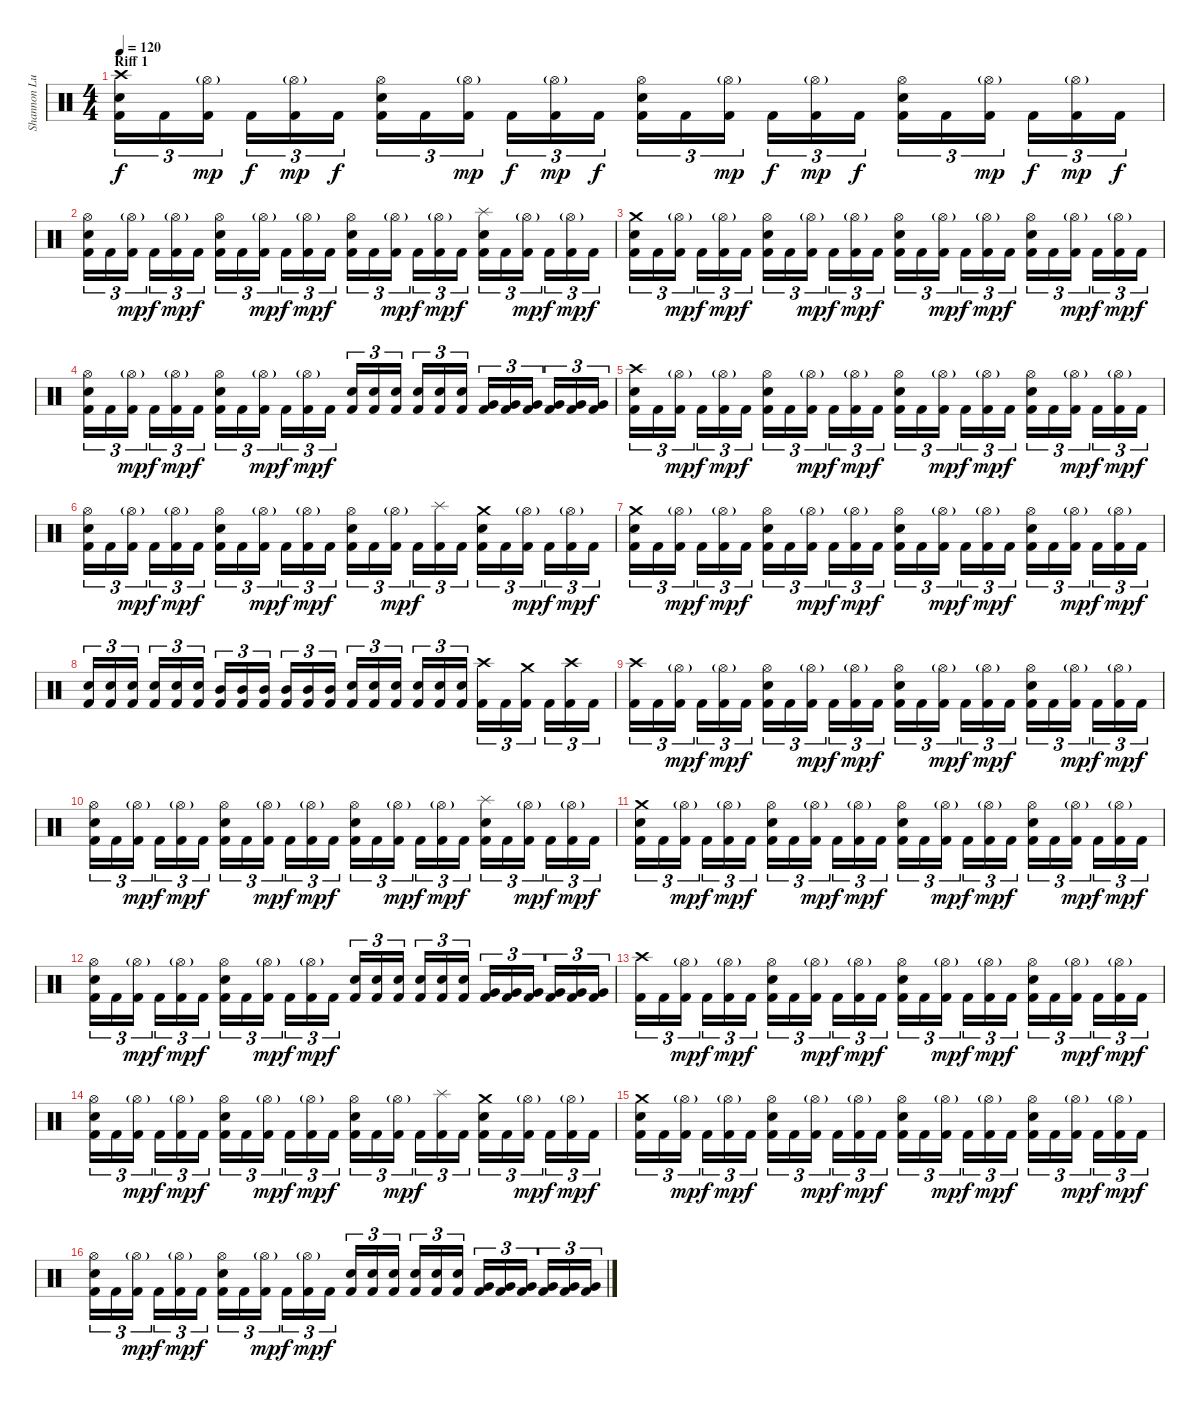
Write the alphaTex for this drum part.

\track ("Shannon Lucas (Drums)" "Shannon Lu") {instrument percussion}
\staff {score}
\articulation defaults
\ts (4 4)
\section ("" "Riff 1")
\tempo 120
\clef neutral
\ks c
("Crash high (hit)" "Snare (hit) 2" "Kick (hit) 2").16{tu (3 2) dy f} "Kick (hit) 2".16{tu (3 2)} ("Hi-Hat (open)"{g} "Kick (hit) 2").16{tu (3 2) dy mp} "Kick (hit) 2".16{tu (3 2) dy f} ("Hi-Hat (open)"{g} "Kick (hit) 2").16{tu (3 2) dy mp} "Kick (hit) 2".16{tu (3 2) dy f} ("Snare (hit) 2" "Hi-Hat (open)" "Kick (hit) 2").16{tu (3 2)} "Kick (hit) 2".16{tu (3 2)} ("Hi-Hat (open)"{g} "Kick (hit) 2").16{tu (3 2) dy mp} "Kick (hit) 2".16{tu (3 2) dy f} ("Hi-Hat (open)"{g} "Kick (hit) 2").16{tu (3 2) dy mp} "Kick (hit) 2".16{tu (3 2) dy f} ("Snare (hit) 2" "Hi-Hat (open)" "Kick (hit) 2").16{tu (3 2)} "Kick (hit) 2".16{tu (3 2)} ("Hi-Hat (open)"{g} "Kick (hit) 2").16{tu (3 2) dy mp} "Kick (hit) 2".16{tu (3 2) dy f} ("Hi-Hat (open)"{g} "Kick (hit) 2").16{tu (3 2) dy mp} "Kick (hit) 2".16{tu (3 2) dy f} ("Snare (hit) 2" "Hi-Hat (open)" "Kick (hit) 2").16{tu (3 2)} "Kick (hit) 2".16{tu (3 2)} ("Hi-Hat (open)"{g} "Kick (hit) 2").16{tu (3 2) dy mp} "Kick (hit) 2".16{tu (3 2) dy f} ("Hi-Hat (open)"{g} "Kick (hit) 2").16{tu (3 2) dy mp} "Kick (hit) 2".16{tu (3 2) dy f} |
("Hi-Hat (open)" "Snare (hit) 2" "Kick (hit) 2").16{tu (3 2)} "Kick (hit) 2".16{tu (3 2)} ("Hi-Hat (open)"{g} "Kick (hit) 2").16{tu (3 2) dy mp} "Kick (hit) 2".16{tu (3 2) dy f} ("Hi-Hat (open)"{g} "Kick (hit) 2").16{tu (3 2) dy mp} "Kick (hit) 2".16{tu (3 2) dy f} ("Snare (hit) 2" "Hi-Hat (open)" "Kick (hit) 2").16{tu (3 2)} "Kick (hit) 2".16{tu (3 2)} ("Hi-Hat (open)"{g} "Kick (hit) 2").16{tu (3 2) dy mp} "Kick (hit) 2".16{tu (3 2) dy f} ("Hi-Hat (open)"{g} "Kick (hit) 2").16{tu (3 2) dy mp} "Kick (hit) 2".16{tu (3 2) dy f} ("Snare (hit) 2" "Hi-Hat (open)" "Kick (hit) 2").16{tu (3 2)} "Kick (hit) 2".16{tu (3 2)} ("Hi-Hat (open)"{g} "Kick (hit) 2").16{tu (3 2) dy mp} "Kick (hit) 2".16{tu (3 2) dy f} ("Hi-Hat (open)"{g} "Kick (hit) 2").16{tu (3 2) dy mp} "Kick (hit) 2".16{tu (3 2) dy f} ("Snare (hit) 2" "Splash (hit)" "Kick (hit) 2").16{tu (3 2)} "Kick (hit) 2".16{tu (3 2)} ("Hi-Hat (open)"{g} "Kick (hit) 2").16{tu (3 2) dy mp} "Kick (hit) 2".16{tu (3 2) dy f} ("Hi-Hat (open)"{g} "Kick (hit) 2").16{tu (3 2) dy mp} "Kick (hit) 2".16{tu (3 2) dy f} |
("Crash medium (hit)" "Snare (hit) 2" "Kick (hit) 2").16{tu (3 2)} "Kick (hit) 2".16{tu (3 2)} ("Hi-Hat (open)"{g} "Kick (hit) 2").16{tu (3 2) dy mp} "Kick (hit) 2".16{tu (3 2) dy f} ("Hi-Hat (open)"{g} "Kick (hit) 2").16{tu (3 2) dy mp} "Kick (hit) 2".16{tu (3 2) dy f} ("Snare (hit) 2" "Hi-Hat (open)" "Kick (hit) 2").16{tu (3 2)} "Kick (hit) 2".16{tu (3 2)} ("Hi-Hat (open)"{g} "Kick (hit) 2").16{tu (3 2) dy mp} "Kick (hit) 2".16{tu (3 2) dy f} ("Hi-Hat (open)"{g} "Kick (hit) 2").16{tu (3 2) dy mp} "Kick (hit) 2".16{tu (3 2) dy f} ("Snare (hit) 2" "Hi-Hat (open)" "Kick (hit) 2").16{tu (3 2)} "Kick (hit) 2".16{tu (3 2)} ("Hi-Hat (open)"{g} "Kick (hit) 2").16{tu (3 2) dy mp} "Kick (hit) 2".16{tu (3 2) dy f} ("Hi-Hat (open)"{g} "Kick (hit) 2").16{tu (3 2) dy mp} "Kick (hit) 2".16{tu (3 2) dy f} ("Snare (hit) 2" "Hi-Hat (open)" "Kick (hit) 2").16{tu (3 2)} "Kick (hit) 2".16{tu (3 2)} ("Hi-Hat (open)"{g} "Kick (hit) 2").16{tu (3 2) dy mp} "Kick (hit) 2".16{tu (3 2) dy f} ("Hi-Hat (open)"{g} "Kick (hit) 2").16{tu (3 2) dy mp} "Kick (hit) 2".16{tu (3 2) dy f} |
("Hi-Hat (open)" "Snare (hit) 2" "Kick (hit) 2").16{tu (3 2)} "Kick (hit) 2".16{tu (3 2)} ("Hi-Hat (open)"{g} "Kick (hit) 2").16{tu (3 2) dy mp} "Kick (hit) 2".16{tu (3 2) dy f} ("Hi-Hat (open)"{g} "Kick (hit) 2").16{tu (3 2) dy mp} "Kick (hit) 2".16{tu (3 2) dy f} ("Snare (hit) 2" "Hi-Hat (open)" "Kick (hit) 2").16{tu (3 2)} "Kick (hit) 2".16{tu (3 2)} ("Hi-Hat (open)"{g} "Kick (hit) 2").16{tu (3 2) dy mp} "Kick (hit) 2".16{tu (3 2) dy f} ("Hi-Hat (open)"{g} "Kick (hit) 2").16{tu (3 2) dy mp} "Kick (hit) 2".16{tu (3 2) dy f} ("Snare (hit) 2" "Kick (hit) 2").16{tu (3 2)} ("Snare (hit) 2" "Kick (hit) 2").16{tu (3 2)} ("Snare (hit) 2" "Kick (hit) 2").16{tu (3 2)} ("Snare (hit) 2" "Kick (hit) 2").16{tu (3 2)} ("Snare (hit) 2" "Kick (hit) 2").16{tu (3 2)} ("Snare (hit) 2" "Kick (hit) 2").16{tu (3 2)} ("Very Low Tom (hit)" "Kick (hit) 2").16{tu (3 2)} ("Very Low Tom (hit)" "Kick (hit) 2").16{tu (3 2)} ("Very Low Tom (hit)" "Kick (hit) 2").16{tu (3 2)} ("Very Low Tom (hit)" "Kick (hit) 2").16{tu (3 2)} ("Very Low Tom (hit)" "Kick (hit) 2").16{tu (3 2)} ("Very Low Tom (hit)" "Kick (hit) 2").16{tu (3 2)} |
("Crash high (hit)" "Snare (hit) 2" "Kick (hit) 2").16{tu (3 2)} "Kick (hit) 2".16{tu (3 2)} ("Hi-Hat (open)"{g} "Kick (hit) 2").16{tu (3 2) dy mp} "Kick (hit) 2".16{tu (3 2) dy f} ("Hi-Hat (open)"{g} "Kick (hit) 2").16{tu (3 2) dy mp} "Kick (hit) 2".16{tu (3 2) dy f} ("Snare (hit) 2" "Hi-Hat (open)" "Kick (hit) 2").16{tu (3 2)} "Kick (hit) 2".16{tu (3 2)} ("Hi-Hat (open)"{g} "Kick (hit) 2").16{tu (3 2) dy mp} "Kick (hit) 2".16{tu (3 2) dy f} ("Hi-Hat (open)"{g} "Kick (hit) 2").16{tu (3 2) dy mp} "Kick (hit) 2".16{tu (3 2) dy f} ("Snare (hit) 2" "Hi-Hat (open)" "Kick (hit) 2").16{tu (3 2)} "Kick (hit) 2".16{tu (3 2)} ("Hi-Hat (open)"{g} "Kick (hit) 2").16{tu (3 2) dy mp} "Kick (hit) 2".16{tu (3 2) dy f} ("Hi-Hat (open)"{g} "Kick (hit) 2").16{tu (3 2) dy mp} "Kick (hit) 2".16{tu (3 2) dy f} ("Snare (hit) 2" "Hi-Hat (open)" "Kick (hit) 2").16{tu (3 2)} "Kick (hit) 2".16{tu (3 2)} ("Hi-Hat (open)"{g} "Kick (hit) 2").16{tu (3 2) dy mp} "Kick (hit) 2".16{tu (3 2) dy f} ("Hi-Hat (open)"{g} "Kick (hit) 2").16{tu (3 2) dy mp} "Kick (hit) 2".16{tu (3 2) dy f} |
("Hi-Hat (open)" "Snare (hit) 2" "Kick (hit) 2").16{tu (3 2)} "Kick (hit) 2".16{tu (3 2)} ("Hi-Hat (open)"{g} "Kick (hit) 2").16{tu (3 2) dy mp} "Kick (hit) 2".16{tu (3 2) dy f} ("Hi-Hat (open)"{g} "Kick (hit) 2").16{tu (3 2) dy mp} "Kick (hit) 2".16{tu (3 2) dy f} ("Snare (hit) 2" "Hi-Hat (open)" "Kick (hit) 2").16{tu (3 2)} "Kick (hit) 2".16{tu (3 2)} ("Hi-Hat (open)"{g} "Kick (hit) 2").16{tu (3 2) dy mp} "Kick (hit) 2".16{tu (3 2) dy f} ("Hi-Hat (open)"{g} "Kick (hit) 2").16{tu (3 2) dy mp} "Kick (hit) 2".16{tu (3 2) dy f} ("Snare (hit) 2" "Hi-Hat (open)" "Kick (hit) 2").16{tu (3 2)} "Kick (hit) 2".16{tu (3 2)} ("Hi-Hat (open)"{g} "Kick (hit) 2").16{tu (3 2) dy mp} "Kick (hit) 2".16{tu (3 2) dy f} ("Splash (hit)" "Kick (hit) 2").16{tu (3 2)} "Kick (hit) 2".16{tu (3 2)} ("Snare (hit) 2" "Crash medium (hit)" "Kick (hit) 2").16{tu (3 2)} "Kick (hit) 2".16{tu (3 2)} ("Hi-Hat (open)"{g} "Kick (hit) 2").16{tu (3 2) dy mp} "Kick (hit) 2".16{tu (3 2) dy f} ("Hi-Hat (open)"{g} "Kick (hit) 2").16{tu (3 2) dy mp} "Kick (hit) 2".16{tu (3 2) dy f} |
("Crash medium (hit)" "Snare (hit) 2" "Kick (hit) 2").16{tu (3 2)} "Kick (hit) 2".16{tu (3 2)} ("Hi-Hat (open)"{g} "Kick (hit) 2").16{tu (3 2) dy mp} "Kick (hit) 2".16{tu (3 2) dy f} ("Hi-Hat (open)"{g} "Kick (hit) 2").16{tu (3 2) dy mp} "Kick (hit) 2".16{tu (3 2) dy f} ("Snare (hit) 2" "Hi-Hat (open)" "Kick (hit) 2").16{tu (3 2)} "Kick (hit) 2".16{tu (3 2)} ("Hi-Hat (open)"{g} "Kick (hit) 2").16{tu (3 2) dy mp} "Kick (hit) 2".16{tu (3 2) dy f} ("Hi-Hat (open)"{g} "Kick (hit) 2").16{tu (3 2) dy mp} "Kick (hit) 2".16{tu (3 2) dy f} ("Snare (hit) 2" "Hi-Hat (open)" "Kick (hit) 2").16{tu (3 2)} "Kick (hit) 2".16{tu (3 2)} ("Hi-Hat (open)"{g} "Kick (hit) 2").16{tu (3 2) dy mp} "Kick (hit) 2".16{tu (3 2) dy f} ("Hi-Hat (open)"{g} "Kick (hit) 2").16{tu (3 2) dy mp} "Kick (hit) 2".16{tu (3 2) dy f} ("Snare (hit) 2" "Hi-Hat (open)" "Kick (hit) 2").16{tu (3 2)} "Kick (hit) 2".16{tu (3 2)} ("Hi-Hat (open)"{g} "Kick (hit) 2").16{tu (3 2) dy mp} "Kick (hit) 2".16{tu (3 2) dy f} ("Hi-Hat (open)"{g} "Kick (hit) 2").16{tu (3 2) dy mp} "Kick (hit) 2".16{tu (3 2) dy f} |
("Snare (hit) 2" "Kick (hit) 2").16{tu (3 2)} ("Snare (hit) 2" "Kick (hit) 2").16{tu (3 2)} ("Snare (hit) 2" "Kick (hit) 2").16{tu (3 2)} ("Snare (hit) 2" "Kick (hit) 2").16{tu (3 2)} ("Snare (hit) 2" "Kick (hit) 2").16{tu (3 2)} ("Snare (hit) 2" "Kick (hit) 2").16{tu (3 2)} ("Mid Tom (hit)" "Kick (hit) 2").16{tu (3 2)} ("Mid Tom (hit)" "Kick (hit) 2").16{tu (3 2)} ("Mid Tom (hit)" "Kick (hit) 2").16{tu (3 2)} ("Mid Tom (hit)" "Kick (hit) 2").16{tu (3 2)} ("Mid Tom (hit)" "Kick (hit) 2").16{tu (3 2)} ("Mid Tom (hit)" "Kick (hit) 2").16{tu (3 2)} ("Snare (hit) 2" "Kick (hit) 2").16{tu (3 2)} ("Snare (hit) 2" "Kick (hit) 2").16{tu (3 2)} ("Snare (hit) 2" "Kick (hit) 2").16{tu (3 2)} ("Snare (hit) 2" "Kick (hit) 2").16{tu (3 2)} ("Snare (hit) 2" "Kick (hit) 2").16{tu (3 2)} ("Snare (hit) 2" "Kick (hit) 2").16{tu (3 2)} ("Crash high (hit)" "Kick (hit) 2").16{tu (3 2)} "Kick (hit) 2".16{tu (3 2)} ("Crash medium (hit)" "Kick (hit) 2").16{tu (3 2)} "Kick (hit) 2".16{tu (3 2)} ("Crash high (hit)" "Kick (hit) 2").16{tu (3 2)} "Kick (hit) 2".16{tu (3 2)} |
("Crash high (hit)" "Kick (hit) 2").16{tu (3 2)} "Kick (hit) 2".16{tu (3 2)} ("Hi-Hat (open)"{g} "Kick (hit) 2").16{tu (3 2) dy mp} "Kick (hit) 2".16{tu (3 2) dy f} ("Hi-Hat (open)"{g} "Kick (hit) 2").16{tu (3 2) dy mp} "Kick (hit) 2".16{tu (3 2) dy f} ("Snare (hit) 2" "Hi-Hat (open)" "Kick (hit) 2").16{tu (3 2)} "Kick (hit) 2".16{tu (3 2)} ("Hi-Hat (open)"{g} "Kick (hit) 2").16{tu (3 2) dy mp} "Kick (hit) 2".16{tu (3 2) dy f} ("Hi-Hat (open)"{g} "Kick (hit) 2").16{tu (3 2) dy mp} "Kick (hit) 2".16{tu (3 2) dy f} ("Snare (hit) 2" "Hi-Hat (open)" "Kick (hit) 2").16{tu (3 2)} "Kick (hit) 2".16{tu (3 2)} ("Hi-Hat (open)"{g} "Kick (hit) 2").16{tu (3 2) dy mp} "Kick (hit) 2".16{tu (3 2) dy f} ("Hi-Hat (open)"{g} "Kick (hit) 2").16{tu (3 2) dy mp} "Kick (hit) 2".16{tu (3 2) dy f} ("Snare (hit) 2" "Hi-Hat (open)" "Kick (hit) 2").16{tu (3 2)} "Kick (hit) 2".16{tu (3 2)} ("Hi-Hat (open)"{g} "Kick (hit) 2").16{tu (3 2) dy mp} "Kick (hit) 2".16{tu (3 2) dy f} ("Hi-Hat (open)"{g} "Kick (hit) 2").16{tu (3 2) dy mp} "Kick (hit) 2".16{tu (3 2) dy f} |
("Hi-Hat (open)" "Snare (hit) 2" "Kick (hit) 2").16{tu (3 2)} "Kick (hit) 2".16{tu (3 2)} ("Hi-Hat (open)"{g} "Kick (hit) 2").16{tu (3 2) dy mp} "Kick (hit) 2".16{tu (3 2) dy f} ("Hi-Hat (open)"{g} "Kick (hit) 2").16{tu (3 2) dy mp} "Kick (hit) 2".16{tu (3 2) dy f} ("Snare (hit) 2" "Hi-Hat (open)" "Kick (hit) 2").16{tu (3 2)} "Kick (hit) 2".16{tu (3 2)} ("Hi-Hat (open)"{g} "Kick (hit) 2").16{tu (3 2) dy mp} "Kick (hit) 2".16{tu (3 2) dy f} ("Hi-Hat (open)"{g} "Kick (hit) 2").16{tu (3 2) dy mp} "Kick (hit) 2".16{tu (3 2) dy f} ("Snare (hit) 2" "Hi-Hat (open)" "Kick (hit) 2").16{tu (3 2)} "Kick (hit) 2".16{tu (3 2)} ("Hi-Hat (open)"{g} "Kick (hit) 2").16{tu (3 2) dy mp} "Kick (hit) 2".16{tu (3 2) dy f} ("Hi-Hat (open)"{g} "Kick (hit) 2").16{tu (3 2) dy mp} "Kick (hit) 2".16{tu (3 2) dy f} ("Snare (hit) 2" "Splash (hit)" "Kick (hit) 2").16{tu (3 2)} "Kick (hit) 2".16{tu (3 2)} ("Hi-Hat (open)"{g} "Kick (hit) 2").16{tu (3 2) dy mp} "Kick (hit) 2".16{tu (3 2) dy f} ("Hi-Hat (open)"{g} "Kick (hit) 2").16{tu (3 2) dy mp} "Kick (hit) 2".16{tu (3 2) dy f} |
("Crash medium (hit)" "Snare (hit) 2" "Kick (hit) 2").16{tu (3 2)} "Kick (hit) 2".16{tu (3 2)} ("Hi-Hat (open)"{g} "Kick (hit) 2").16{tu (3 2) dy mp} "Kick (hit) 2".16{tu (3 2) dy f} ("Hi-Hat (open)"{g} "Kick (hit) 2").16{tu (3 2) dy mp} "Kick (hit) 2".16{tu (3 2) dy f} ("Snare (hit) 2" "Hi-Hat (open)" "Kick (hit) 2").16{tu (3 2)} "Kick (hit) 2".16{tu (3 2)} ("Hi-Hat (open)"{g} "Kick (hit) 2").16{tu (3 2) dy mp} "Kick (hit) 2".16{tu (3 2) dy f} ("Hi-Hat (open)"{g} "Kick (hit) 2").16{tu (3 2) dy mp} "Kick (hit) 2".16{tu (3 2) dy f} ("Snare (hit) 2" "Hi-Hat (open)" "Kick (hit) 2").16{tu (3 2)} "Kick (hit) 2".16{tu (3 2)} ("Hi-Hat (open)"{g} "Kick (hit) 2").16{tu (3 2) dy mp} "Kick (hit) 2".16{tu (3 2) dy f} ("Hi-Hat (open)"{g} "Kick (hit) 2").16{tu (3 2) dy mp} "Kick (hit) 2".16{tu (3 2) dy f} ("Snare (hit) 2" "Hi-Hat (open)" "Kick (hit) 2").16{tu (3 2)} "Kick (hit) 2".16{tu (3 2)} ("Hi-Hat (open)"{g} "Kick (hit) 2").16{tu (3 2) dy mp} "Kick (hit) 2".16{tu (3 2) dy f} ("Hi-Hat (open)"{g} "Kick (hit) 2").16{tu (3 2) dy mp} "Kick (hit) 2".16{tu (3 2) dy f} |
("Hi-Hat (open)" "Snare (hit) 2" "Kick (hit) 2").16{tu (3 2)} "Kick (hit) 2".16{tu (3 2)} ("Hi-Hat (open)"{g} "Kick (hit) 2").16{tu (3 2) dy mp} "Kick (hit) 2".16{tu (3 2) dy f} ("Hi-Hat (open)"{g} "Kick (hit) 2").16{tu (3 2) dy mp} "Kick (hit) 2".16{tu (3 2) dy f} ("Snare (hit) 2" "Hi-Hat (open)" "Kick (hit) 2").16{tu (3 2)} "Kick (hit) 2".16{tu (3 2)} ("Hi-Hat (open)"{g} "Kick (hit) 2").16{tu (3 2) dy mp} "Kick (hit) 2".16{tu (3 2) dy f} ("Hi-Hat (open)"{g} "Kick (hit) 2").16{tu (3 2) dy mp} "Kick (hit) 2".16{tu (3 2) dy f} ("Snare (hit) 2" "Kick (hit) 2").16{tu (3 2)} ("Snare (hit) 2" "Kick (hit) 2").16{tu (3 2)} ("Snare (hit) 2" "Kick (hit) 2").16{tu (3 2)} ("Snare (hit) 2" "Kick (hit) 2").16{tu (3 2)} ("Snare (hit) 2" "Kick (hit) 2").16{tu (3 2)} ("Snare (hit) 2" "Kick (hit) 2").16{tu (3 2)} ("Very Low Tom (hit)" "Kick (hit) 2").16{tu (3 2)} ("Very Low Tom (hit)" "Kick (hit) 2").16{tu (3 2)} ("Very Low Tom (hit)" "Kick (hit) 2").16{tu (3 2)} ("Very Low Tom (hit)" "Kick (hit) 2").16{tu (3 2)} ("Very Low Tom (hit)" "Kick (hit) 2").16{tu (3 2)} ("Very Low Tom (hit)" "Kick (hit) 2").16{tu (3 2)} |
("Crash high (hit)" "Kick (hit) 2").16{tu (3 2)} "Kick (hit) 2".16{tu (3 2)} ("Hi-Hat (open)"{g} "Kick (hit) 2").16{tu (3 2) dy mp} "Kick (hit) 2".16{tu (3 2) dy f} ("Hi-Hat (open)"{g} "Kick (hit) 2").16{tu (3 2) dy mp} "Kick (hit) 2".16{tu (3 2) dy f} ("Snare (hit) 2" "Hi-Hat (open)" "Kick (hit) 2").16{tu (3 2)} "Kick (hit) 2".16{tu (3 2)} ("Hi-Hat (open)"{g} "Kick (hit) 2").16{tu (3 2) dy mp} "Kick (hit) 2".16{tu (3 2) dy f} ("Hi-Hat (open)"{g} "Kick (hit) 2").16{tu (3 2) dy mp} "Kick (hit) 2".16{tu (3 2) dy f} ("Snare (hit) 2" "Hi-Hat (open)" "Kick (hit) 2").16{tu (3 2)} "Kick (hit) 2".16{tu (3 2)} ("Hi-Hat (open)"{g} "Kick (hit) 2").16{tu (3 2) dy mp} "Kick (hit) 2".16{tu (3 2) dy f} ("Hi-Hat (open)"{g} "Kick (hit) 2").16{tu (3 2) dy mp} "Kick (hit) 2".16{tu (3 2) dy f} ("Snare (hit) 2" "Hi-Hat (open)" "Kick (hit) 2").16{tu (3 2)} "Kick (hit) 2".16{tu (3 2)} ("Hi-Hat (open)"{g} "Kick (hit) 2").16{tu (3 2) dy mp} "Kick (hit) 2".16{tu (3 2) dy f} ("Hi-Hat (open)"{g} "Kick (hit) 2").16{tu (3 2) dy mp} "Kick (hit) 2".16{tu (3 2) dy f} |
("Hi-Hat (open)" "Snare (hit) 2" "Kick (hit) 2").16{tu (3 2)} "Kick (hit) 2".16{tu (3 2)} ("Hi-Hat (open)"{g} "Kick (hit) 2").16{tu (3 2) dy mp} "Kick (hit) 2".16{tu (3 2) dy f} ("Hi-Hat (open)"{g} "Kick (hit) 2").16{tu (3 2) dy mp} "Kick (hit) 2".16{tu (3 2) dy f} ("Snare (hit) 2" "Hi-Hat (open)" "Kick (hit) 2").16{tu (3 2)} "Kick (hit) 2".16{tu (3 2)} ("Hi-Hat (open)"{g} "Kick (hit) 2").16{tu (3 2) dy mp} "Kick (hit) 2".16{tu (3 2) dy f} ("Hi-Hat (open)"{g} "Kick (hit) 2").16{tu (3 2) dy mp} "Kick (hit) 2".16{tu (3 2) dy f} ("Snare (hit) 2" "Hi-Hat (open)" "Kick (hit) 2").16{tu (3 2)} "Kick (hit) 2".16{tu (3 2)} ("Hi-Hat (open)"{g} "Kick (hit) 2").16{tu (3 2) dy mp} "Kick (hit) 2".16{tu (3 2) dy f} ("Splash (hit)" "Kick (hit) 2").16{tu (3 2)} "Kick (hit) 2".16{tu (3 2)} ("Snare (hit) 2" "Crash medium (hit)" "Kick (hit) 2").16{tu (3 2)} "Kick (hit) 2".16{tu (3 2)} ("Hi-Hat (open)"{g} "Kick (hit) 2").16{tu (3 2) dy mp} "Kick (hit) 2".16{tu (3 2) dy f} ("Hi-Hat (open)"{g} "Kick (hit) 2").16{tu (3 2) dy mp} "Kick (hit) 2".16{tu (3 2) dy f} |
("Crash medium (hit)" "Snare (hit) 2" "Kick (hit) 2").16{tu (3 2)} "Kick (hit) 2".16{tu (3 2)} ("Hi-Hat (open)"{g} "Kick (hit) 2").16{tu (3 2) dy mp} "Kick (hit) 2".16{tu (3 2) dy f} ("Hi-Hat (open)"{g} "Kick (hit) 2").16{tu (3 2) dy mp} "Kick (hit) 2".16{tu (3 2) dy f} ("Snare (hit) 2" "Hi-Hat (open)" "Kick (hit) 2").16{tu (3 2)} "Kick (hit) 2".16{tu (3 2)} ("Hi-Hat (open)"{g} "Kick (hit) 2").16{tu (3 2) dy mp} "Kick (hit) 2".16{tu (3 2) dy f} ("Hi-Hat (open)"{g} "Kick (hit) 2").16{tu (3 2) dy mp} "Kick (hit) 2".16{tu (3 2) dy f} ("Snare (hit) 2" "Hi-Hat (open)" "Kick (hit) 2").16{tu (3 2)} "Kick (hit) 2".16{tu (3 2)} ("Hi-Hat (open)"{g} "Kick (hit) 2").16{tu (3 2) dy mp} "Kick (hit) 2".16{tu (3 2) dy f} ("Hi-Hat (open)"{g} "Kick (hit) 2").16{tu (3 2) dy mp} "Kick (hit) 2".16{tu (3 2) dy f} ("Snare (hit) 2" "Hi-Hat (open)" "Kick (hit) 2").16{tu (3 2)} "Kick (hit) 2".16{tu (3 2)} ("Hi-Hat (open)"{g} "Kick (hit) 2").16{tu (3 2) dy mp} "Kick (hit) 2".16{tu (3 2) dy f} ("Hi-Hat (open)"{g} "Kick (hit) 2").16{tu (3 2) dy mp} "Kick (hit) 2".16{tu (3 2) dy f} |
("Hi-Hat (open)" "Snare (hit) 2" "Kick (hit) 2").16{tu (3 2)} "Kick (hit) 2".16{tu (3 2)} ("Hi-Hat (open)"{g} "Kick (hit) 2").16{tu (3 2) dy mp} "Kick (hit) 2".16{tu (3 2) dy f} ("Hi-Hat (open)"{g} "Kick (hit) 2").16{tu (3 2) dy mp} "Kick (hit) 2".16{tu (3 2) dy f} ("Snare (hit) 2" "Hi-Hat (open)" "Kick (hit) 2").16{tu (3 2)} "Kick (hit) 2".16{tu (3 2)} ("Hi-Hat (open)"{g} "Kick (hit) 2").16{tu (3 2) dy mp} "Kick (hit) 2".16{tu (3 2) dy f} ("Hi-Hat (open)"{g} "Kick (hit) 2").16{tu (3 2) dy mp} "Kick (hit) 2".16{tu (3 2) dy f} ("Snare (hit) 2" "Kick (hit) 2").16{tu (3 2)} ("Snare (hit) 2" "Kick (hit) 2").16{tu (3 2)} ("Snare (hit) 2" "Kick (hit) 2").16{tu (3 2)} ("Snare (hit) 2" "Kick (hit) 2").16{tu (3 2)} ("Snare (hit) 2" "Kick (hit) 2").16{tu (3 2)} ("Snare (hit) 2" "Kick (hit) 2").16{tu (3 2)} ("Very Low Tom (hit)" "Kick (hit) 2").16{tu (3 2)} ("Very Low Tom (hit)" "Kick (hit) 2").16{tu (3 2)} ("Very Low Tom (hit)" "Kick (hit) 2").16{tu (3 2)} ("Very Low Tom (hit)" "Kick (hit) 2").16{tu (3 2)} ("Very Low Tom (hit)" "Kick (hit) 2").16{tu (3 2)} ("Very Low Tom (hit)" "Kick (hit) 2").16{tu (3 2)}
